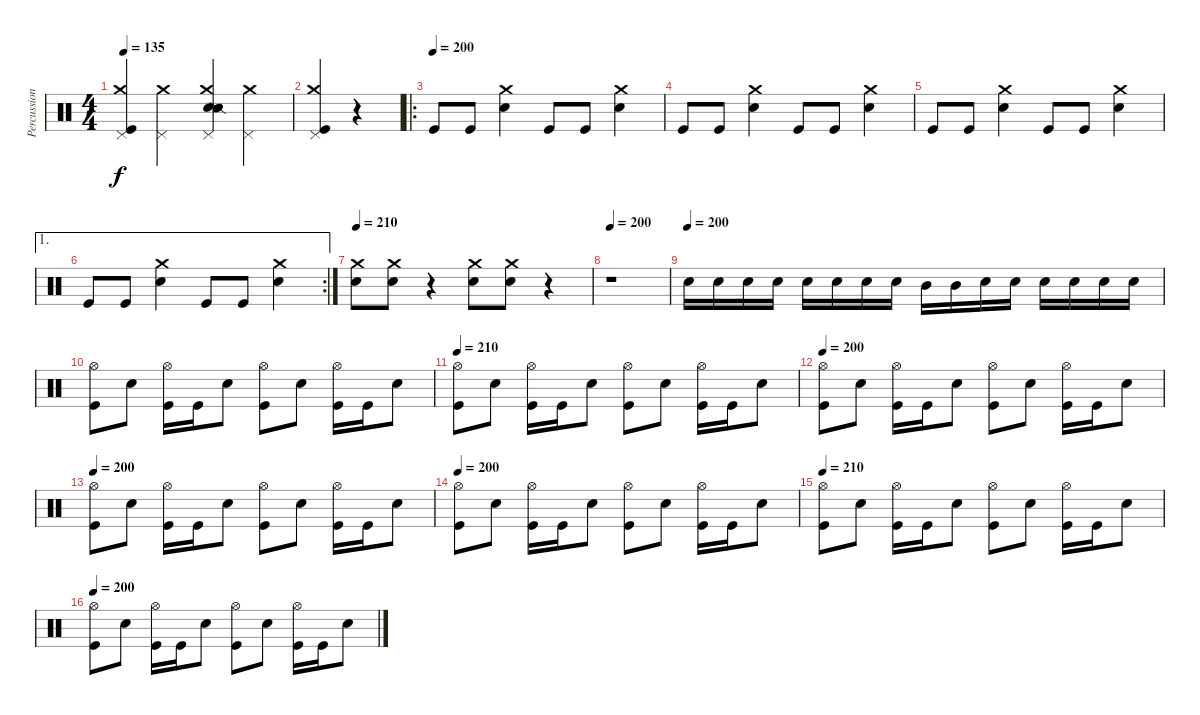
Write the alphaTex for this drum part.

\track ("Percussion" "Percussion") {instrument percussion}
\staff {score}
\articulation defaults
\ts (4 4)
\tempo 135
\clef neutral
\ks c
("Pedal Hi-Hat (hit)" "Crash medium (hit)" "Kick (hit)").4{dy f} ("Pedal Hi-Hat (hit)" "Crash medium (hit)").4 ("Electric Snare (hit)" "Snare (side stick) 2" "Pedal Hi-Hat (hit)" "Crash medium (hit)").4 ("Pedal Hi-Hat (hit)" "Crash medium (hit)").4 |
("Pedal Hi-Hat (hit)" "Crash medium (hit)" "Kick (hit)").4 r.4 |
\ro
\tempo (200)
"Kick (hit)".8 "Kick (hit)".8 ("Electric Snare (hit)" "Crash medium (hit)").4 "Kick (hit)".8 "Kick (hit)".8 ("Electric Snare (hit)" "Crash medium (hit)").4 |
"Kick (hit)".8 "Kick (hit)".8 ("Electric Snare (hit)" "Crash medium (hit)").4 "Kick (hit)".8 "Kick (hit)".8 ("Electric Snare (hit)" "Crash medium (hit)").4 |
"Kick (hit)".8 "Kick (hit)".8 ("Electric Snare (hit)" "Crash medium (hit)").4 "Kick (hit)".8 "Kick (hit)".8 ("Electric Snare (hit)" "Crash medium (hit)").4 |
\ae 1
\rc 2 "Kick (hit)".8 "Kick (hit)".8
("Electric Snare (hit)" "Crash medium (hit)").4 "Kick (hit)".8 "Kick (hit)".8 ("Electric Snare (hit)" "Crash medium (hit)").4 |
\tempo 210
("Crash medium (hit)" "Electric Snare (hit)").8 ("Crash medium (hit)" "Electric Snare (hit)").8 r.4 ("Crash medium (hit)" "Electric Snare (hit)").8 ("Crash medium (hit)" "Electric Snare (hit)").8 r.4 |
\tempo 200
r.1 |
\tempo (200)
"Electric Snare (hit)".16 "Electric Snare (hit)".16 "Electric Snare (hit)".16 "Electric Snare (hit)".16 "Electric Snare (hit)".16 "Electric Snare (hit)".16 "Electric Snare (hit)".16 "Electric Snare (hit)".16 "Mid Tom (hit)".16 "Mid Tom (hit)".16 "Electric Snare (hit)".16 "Electric Snare (hit)".16 "Electric Snare (hit)".16 "Electric Snare (hit)".16 "Electric Snare (hit)".16 "Electric Snare (hit)".16 |
("Hi-Hat (open)" "Kick (hit)").8 "Electric Snare (hit)".8 ("Hi-Hat (open)" "Kick (hit)").16 "Kick (hit)".16 "Electric Snare (hit)".8 ("Hi-Hat (open)" "Kick (hit)").8 "Electric Snare (hit)".8 ("Hi-Hat (open)" "Kick (hit)").16 "Kick (hit)".16 "Electric Snare (hit)".8 |
\tempo 210
("Hi-Hat (open)" "Kick (hit)").8 "Electric Snare (hit)".8 ("Hi-Hat (open)" "Kick (hit)").16 "Kick (hit)".16 "Electric Snare (hit)".8 ("Hi-Hat (open)" "Kick (hit)").8 "Electric Snare (hit)".8 ("Hi-Hat (open)" "Kick (hit)").16 "Kick (hit)".16 "Electric Snare (hit)".8 |
\tempo 200
("Hi-Hat (open)" "Kick (hit)").8 "Electric Snare (hit)".8 ("Hi-Hat (open)" "Kick (hit)").16 "Kick (hit)".16 "Electric Snare (hit)".8 ("Hi-Hat (open)" "Kick (hit)").8 "Electric Snare (hit)".8 ("Hi-Hat (open)" "Kick (hit)").16 "Kick (hit)".16 "Electric Snare (hit)".8 |
\tempo 200
("Hi-Hat (open)" "Kick (hit)").8 "Electric Snare (hit)".8 ("Hi-Hat (open)" "Kick (hit)").16 "Kick (hit)".16 "Electric Snare (hit)".8 ("Hi-Hat (open)" "Kick (hit)").8 "Electric Snare (hit)".8 ("Hi-Hat (open)" "Kick (hit)").16 "Kick (hit)".16 "Electric Snare (hit)".8 |
\tempo 200
("Hi-Hat (open)" "Kick (hit)").8 "Electric Snare (hit)".8 ("Hi-Hat (open)" "Kick (hit)").16 "Kick (hit)".16 "Electric Snare (hit)".8 ("Hi-Hat (open)" "Kick (hit)").8 "Electric Snare (hit)".8 ("Hi-Hat (open)" "Kick (hit)").16 "Kick (hit)".16 "Electric Snare (hit)".8 |
\tempo 210
("Hi-Hat (open)" "Kick (hit)").8 "Electric Snare (hit)".8 ("Hi-Hat (open)" "Kick (hit)").16 "Kick (hit)".16 "Electric Snare (hit)".8 ("Hi-Hat (open)" "Kick (hit)").8 "Electric Snare (hit)".8 ("Hi-Hat (open)" "Kick (hit)").16 "Kick (hit)".16 "Electric Snare (hit)".8 |
\tempo 200
("Hi-Hat (open)" "Kick (hit)").8 "Electric Snare (hit)".8 ("Hi-Hat (open)" "Kick (hit)").16 "Kick (hit)".16 "Electric Snare (hit)".8 ("Hi-Hat (open)" "Kick (hit)").8 "Electric Snare (hit)".8 ("Hi-Hat (open)" "Kick (hit)").16 "Kick (hit)".16 "Electric Snare (hit)".8
